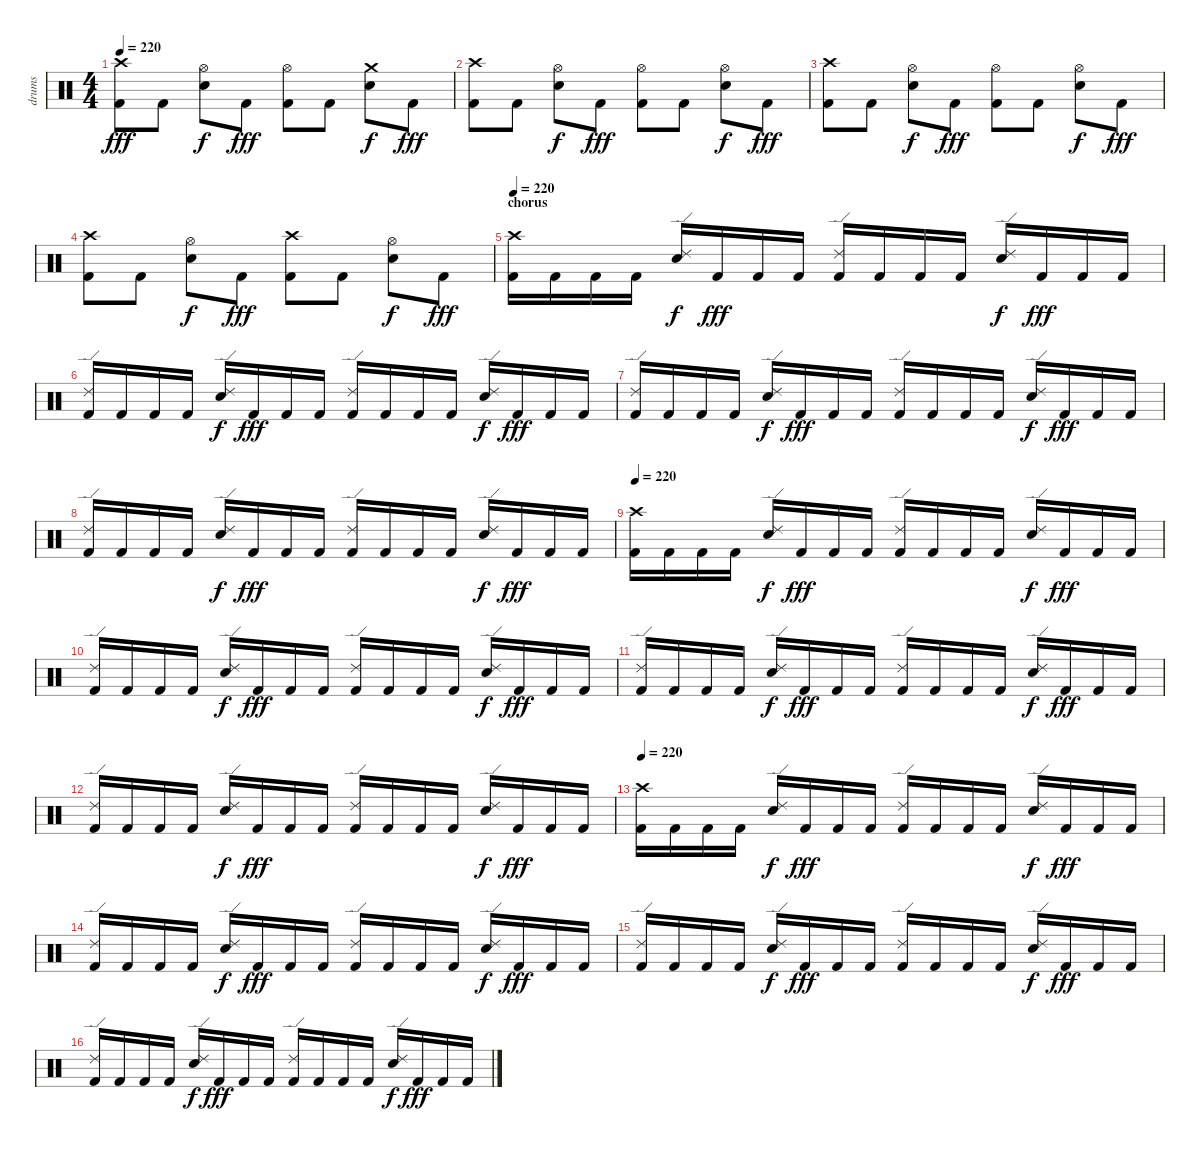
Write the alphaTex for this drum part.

\track ("drums" "drums") {instrument percussion}
\staff {score}
\articulation defaults
\ts (4 4)
\tempo 220
\clef neutral
\ks c
("Crash high (hit)" "Kick (hit) 2").8{dy fff} "Kick (hit) 2".8 ("Hi-Hat (open)" "Snare (hit) 2").8{dy f} "Kick (hit) 2".8{dy fff} ("Hi-Hat (open)" "Kick (hit) 2").8 "Kick (hit) 2".8 ("Crash medium (hit)" "Snare (hit) 2").8{dy f} "Kick (hit) 2".8{dy fff} |
("Crash high (hit)" "Kick (hit) 2").8 "Kick (hit) 2".8 ("Hi-Hat (open)" "Snare (hit) 2").8{dy f} "Kick (hit) 2".8{dy fff} ("Hi-Hat (open)" "Kick (hit) 2").8 "Kick (hit) 2".8 ("Hi-Hat (open)" "Snare (hit) 2").8{dy f} "Kick (hit) 2".8{dy fff} |
("Crash high (hit)" "Kick (hit) 2").8 "Kick (hit) 2".8 ("Hi-Hat (open)" "Snare (hit) 2").8{dy f} "Kick (hit) 2".8{dy fff} ("Hi-Hat (open)" "Kick (hit) 2").8 "Kick (hit) 2".8 ("Hi-Hat (open)" "Snare (hit) 2").8{dy f} "Kick (hit) 2".8{dy fff} |
("Crash high (hit)" "Kick (hit) 2").8 "Kick (hit) 2".8 ("Hi-Hat (open)" "Snare (hit) 2").8{dy f} "Kick (hit) 2".8{dy fff} ("Crash high (hit)" "Kick (hit) 2").8 "Kick (hit) 2".8 ("Hi-Hat (open)" "Snare (hit) 2").8{dy f} "Kick (hit) 2".8{dy fff} |
\section ("" "chorus")
\tempo 220
("Crash high (hit)" "Kick (hit) 2").16 "Kick (hit) 2".16 "Kick (hit) 2".16 "Kick (hit) 2".16 ("Ride (edge) 2" "Snare (hit) 2").16{dy f} "Kick (hit) 2".16{dy fff} "Kick (hit) 2".16 "Kick (hit) 2".16 ("Ride (edge) 2" "Kick (hit) 2").16 "Kick (hit) 2".16 "Kick (hit) 2".16 "Kick (hit) 2".16 ("Ride (edge) 2" "Snare (hit) 2").16{dy f} "Kick (hit) 2".16{dy fff} "Kick (hit) 2".16 "Kick (hit) 2".16 |
("Ride (edge) 2" "Kick (hit) 2").16 "Kick (hit) 2".16 "Kick (hit) 2".16 "Kick (hit) 2".16 ("Ride (edge) 2" "Snare (hit) 2").16{dy f} "Kick (hit) 2".16{dy fff} "Kick (hit) 2".16 "Kick (hit) 2".16 ("Ride (edge) 2" "Kick (hit) 2").16 "Kick (hit) 2".16 "Kick (hit) 2".16 "Kick (hit) 2".16 ("Ride (edge) 2" "Snare (hit) 2").16{dy f} "Kick (hit) 2".16{dy fff} "Kick (hit) 2".16 "Kick (hit) 2".16 |
("Ride (edge) 2" "Kick (hit) 2").16 "Kick (hit) 2".16 "Kick (hit) 2".16 "Kick (hit) 2".16 ("Ride (edge) 2" "Snare (hit) 2").16{dy f} "Kick (hit) 2".16{dy fff} "Kick (hit) 2".16 "Kick (hit) 2".16 ("Ride (edge) 2" "Kick (hit) 2").16 "Kick (hit) 2".16 "Kick (hit) 2".16 "Kick (hit) 2".16 ("Ride (edge) 2" "Snare (hit) 2").16{dy f} "Kick (hit) 2".16{dy fff} "Kick (hit) 2".16 "Kick (hit) 2".16 |
("Ride (edge) 2" "Kick (hit) 2").16 "Kick (hit) 2".16 "Kick (hit) 2".16 "Kick (hit) 2".16 ("Ride (edge) 2" "Snare (hit) 2").16{dy f} "Kick (hit) 2".16{dy fff} "Kick (hit) 2".16 "Kick (hit) 2".16 ("Ride (edge) 2" "Kick (hit) 2").16 "Kick (hit) 2".16 "Kick (hit) 2".16 "Kick (hit) 2".16 ("Ride (edge) 2" "Snare (hit) 2").16{dy f} "Kick (hit) 2".16{dy fff} "Kick (hit) 2".16 "Kick (hit) 2".16 |
\tempo 220
("Crash high (hit)" "Kick (hit) 2").16 "Kick (hit) 2".16 "Kick (hit) 2".16 "Kick (hit) 2".16 ("Ride (edge) 2" "Snare (hit) 2").16{dy f} "Kick (hit) 2".16{dy fff} "Kick (hit) 2".16 "Kick (hit) 2".16 ("Ride (edge) 2" "Kick (hit) 2").16 "Kick (hit) 2".16 "Kick (hit) 2".16 "Kick (hit) 2".16 ("Ride (edge) 2" "Snare (hit) 2").16{dy f} "Kick (hit) 2".16{dy fff} "Kick (hit) 2".16 "Kick (hit) 2".16 |
("Ride (edge) 2" "Kick (hit) 2").16 "Kick (hit) 2".16 "Kick (hit) 2".16 "Kick (hit) 2".16 ("Ride (edge) 2" "Snare (hit) 2").16{dy f} "Kick (hit) 2".16{dy fff} "Kick (hit) 2".16 "Kick (hit) 2".16 ("Ride (edge) 2" "Kick (hit) 2").16 "Kick (hit) 2".16 "Kick (hit) 2".16 "Kick (hit) 2".16 ("Ride (edge) 2" "Snare (hit) 2").16{dy f} "Kick (hit) 2".16{dy fff} "Kick (hit) 2".16 "Kick (hit) 2".16 |
("Ride (edge) 2" "Kick (hit) 2").16 "Kick (hit) 2".16 "Kick (hit) 2".16 "Kick (hit) 2".16 ("Ride (edge) 2" "Snare (hit) 2").16{dy f} "Kick (hit) 2".16{dy fff} "Kick (hit) 2".16 "Kick (hit) 2".16 ("Ride (edge) 2" "Kick (hit) 2").16 "Kick (hit) 2".16 "Kick (hit) 2".16 "Kick (hit) 2".16 ("Ride (edge) 2" "Snare (hit) 2").16{dy f} "Kick (hit) 2".16{dy fff} "Kick (hit) 2".16 "Kick (hit) 2".16 |
("Ride (edge) 2" "Kick (hit) 2").16 "Kick (hit) 2".16 "Kick (hit) 2".16 "Kick (hit) 2".16 ("Ride (edge) 2" "Snare (hit) 2").16{dy f} "Kick (hit) 2".16{dy fff} "Kick (hit) 2".16 "Kick (hit) 2".16 ("Ride (edge) 2" "Kick (hit) 2").16 "Kick (hit) 2".16 "Kick (hit) 2".16 "Kick (hit) 2".16 ("Ride (edge) 2" "Snare (hit) 2").16{dy f} "Kick (hit) 2".16{dy fff} "Kick (hit) 2".16 "Kick (hit) 2".16 |
\tempo 220
("Crash high (hit)" "Kick (hit) 2").16 "Kick (hit) 2".16 "Kick (hit) 2".16 "Kick (hit) 2".16 ("Ride (edge) 2" "Snare (hit) 2").16{dy f} "Kick (hit) 2".16{dy fff} "Kick (hit) 2".16 "Kick (hit) 2".16 ("Ride (edge) 2" "Kick (hit) 2").16 "Kick (hit) 2".16 "Kick (hit) 2".16 "Kick (hit) 2".16 ("Ride (edge) 2" "Snare (hit) 2").16{dy f} "Kick (hit) 2".16{dy fff} "Kick (hit) 2".16 "Kick (hit) 2".16 |
("Ride (edge) 2" "Kick (hit) 2").16 "Kick (hit) 2".16 "Kick (hit) 2".16 "Kick (hit) 2".16 ("Ride (edge) 2" "Snare (hit) 2").16{dy f} "Kick (hit) 2".16{dy fff} "Kick (hit) 2".16 "Kick (hit) 2".16 ("Ride (edge) 2" "Kick (hit) 2").16 "Kick (hit) 2".16 "Kick (hit) 2".16 "Kick (hit) 2".16 ("Ride (edge) 2" "Snare (hit) 2").16{dy f} "Kick (hit) 2".16{dy fff} "Kick (hit) 2".16 "Kick (hit) 2".16 |
("Ride (edge) 2" "Kick (hit) 2").16 "Kick (hit) 2".16 "Kick (hit) 2".16 "Kick (hit) 2".16 ("Ride (edge) 2" "Snare (hit) 2").16{dy f} "Kick (hit) 2".16{dy fff} "Kick (hit) 2".16 "Kick (hit) 2".16 ("Ride (edge) 2" "Kick (hit) 2").16 "Kick (hit) 2".16 "Kick (hit) 2".16 "Kick (hit) 2".16 ("Ride (edge) 2" "Snare (hit) 2").16{dy f} "Kick (hit) 2".16{dy fff} "Kick (hit) 2".16 "Kick (hit) 2".16 |
("Ride (edge) 2" "Kick (hit) 2").16 "Kick (hit) 2".16 "Kick (hit) 2".16 "Kick (hit) 2".16 ("Ride (edge) 2" "Snare (hit) 2").16{dy f} "Kick (hit) 2".16{dy fff} "Kick (hit) 2".16 "Kick (hit) 2".16 ("Ride (edge) 2" "Kick (hit) 2").16 "Kick (hit) 2".16 "Kick (hit) 2".16 "Kick (hit) 2".16 ("Ride (edge) 2" "Snare (hit) 2").16{dy f} "Kick (hit) 2".16{dy fff} "Kick (hit) 2".16 "Kick (hit) 2".16
